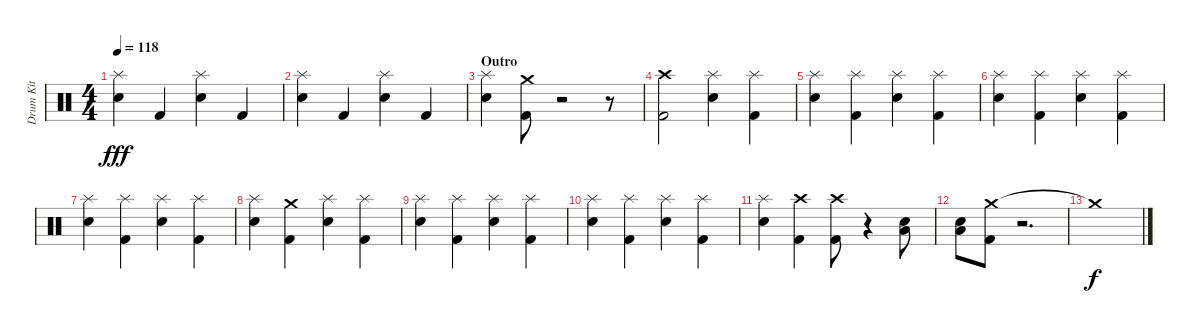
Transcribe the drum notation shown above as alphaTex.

\track ("Drum Kit" "Drum Kit") {instrument percussion}
\staff {score}
\articulation defaults
\ts (4 4)
\tempo 118
\clef neutral
\ks c
("Electric Snare (hit)" "Splash (hit)").4{dy fff} "Kick (hit) 2".4 ("Electric Snare (hit)" "Splash (hit)").4 "Kick (hit) 2".4 |
("Splash (hit)" "Electric Snare (hit)").4 "Kick (hit) 2".4 ("Electric Snare (hit)" "Splash (hit)").4 "Kick (hit) 2".4 |
\section ("" "Outro")
("Electric Snare (hit)" "Splash (hit)").4 ("Crash medium (hit)" "Kick (hit) 2").8 r.2 r.8 |
("Crash high (hit)" "Kick (hit) 2").2 ("Splash (hit)" "Electric Snare (hit)").4 ("Kick (hit) 2" "Splash (hit)").4 |
("Electric Snare (hit)" "Splash (hit)").4 ("Kick (hit) 2" "Splash (hit)").4 ("Electric Snare (hit)" "Splash (hit)").4 ("Splash (hit)" "Kick (hit) 2").4 |
("Splash (hit)" "Electric Snare (hit)").4 ("Kick (hit) 2" "Splash (hit)").4 ("Electric Snare (hit)" "Splash (hit)").4 ("Kick (hit) 2" "Splash (hit)").4 |
("Splash (hit)" "Electric Snare (hit)").4 ("Splash (hit)" "Kick (hit) 2").4 ("Splash (hit)" "Electric Snare (hit)").4 ("Kick (hit) 2" "Splash (hit)").4 |
("Electric Snare (hit)" "Splash (hit)").4 ("Crash medium (hit)" "Kick (hit) 2").4 ("Electric Snare (hit)" "Splash (hit)").4 ("Splash (hit)" "Kick (hit) 2").4 |
("Splash (hit)" "Electric Snare (hit)").4 ("Splash (hit)" "Kick (hit) 2").4 ("Splash (hit)" "Electric Snare (hit)").4 ("Kick (hit) 2" "Splash (hit)").4 |
("Splash (hit)" "Electric Snare (hit)").4 ("Splash (hit)" "Kick (hit) 2").4 ("Electric Snare (hit)" "Splash (hit)").4 ("Kick (hit) 2" "Splash (hit)").4 |
("Electric Snare (hit)" "Splash (hit)").4 ("Kick (hit) 2" "Crash high (hit)").4 ("Crash high (hit)" "Kick (hit) 2").8 r.4 ("Low Floor Tom (hit)" "Electric Snare (hit)").8 |
("Low Floor Tom (hit)" "Electric Snare (hit)").8 ("Crash medium (hit)" "Kick (hit) 2").8 r.2{d} |
"Crash medium (hit)"{t}.1{dy f}
